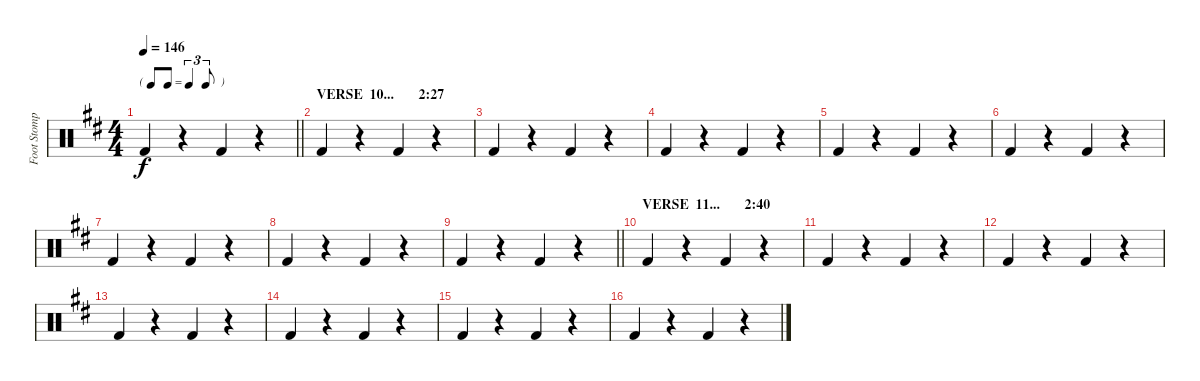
\track ("Foot Stomp" "Foot Stomp") {instrument percussion}
\staff {score}
\articulation defaults
\ts (4 4)
\tf triplet8th
\tempo 146
\clef neutral
\barLineRight lightlight
\ks d "Kick (hit) 2".4{dy f}
r.4 "Kick (hit) 2".4 r.4 |
\section ("" "VERSE  10...       2:27")
"Kick (hit) 2".4 r.4 "Kick (hit) 2".4 r.4 |
"Kick (hit) 2".4 r.4 "Kick (hit) 2".4 r.4 |
"Kick (hit) 2".4 r.4 "Kick (hit) 2".4 r.4 |
"Kick (hit) 2".4 r.4 "Kick (hit) 2".4 r.4 |
"Kick (hit) 2".4 r.4 "Kick (hit) 2".4 r.4 |
"Kick (hit) 2".4 r.4 "Kick (hit) 2".4 r.4 |
"Kick (hit) 2".4 r.4 "Kick (hit) 2".4 r.4 |
\barLineRight lightlight "Kick (hit) 2".4
r.4 "Kick (hit) 2".4 r.4 |
\section ("" "VERSE  11...       2:40")
"Kick (hit) 2".4 r.4 "Kick (hit) 2".4 r.4 |
"Kick (hit) 2".4 r.4 "Kick (hit) 2".4 r.4 |
"Kick (hit) 2".4 r.4 "Kick (hit) 2".4 r.4 |
"Kick (hit) 2".4 r.4 "Kick (hit) 2".4 r.4 |
"Kick (hit) 2".4 r.4 "Kick (hit) 2".4 r.4 |
"Kick (hit) 2".4 r.4 "Kick (hit) 2".4 r.4 |
"Kick (hit) 2".4 r.4 "Kick (hit) 2".4 r.4
